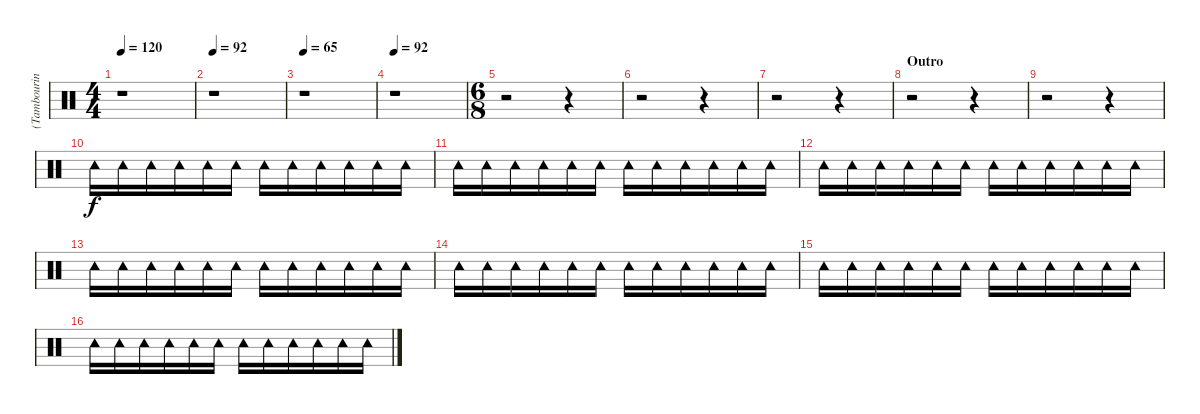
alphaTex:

\track ("(Tambourine)" "(Tambourin") {instrument percussion}
\staff {score}
\articulation defaults
\ts (4 4)
\tempo 120
\clef neutral
\ks c
r.1{dy f} |
\tempo 92
r.1 |
\tempo 65
r.1 |
\tempo 92
r.1 |
\ts (6 8)
r.2 r.4 |
r.2 r.4 |
r.2 r.4 |
\section ("" "Outro")
r.2 r.4 |
r.2 r.4 |
"Tambourine (hit)".16 "Tambourine (hit)".16 "Tambourine (hit)".16 "Tambourine (hit)".16 "Tambourine (hit)".16 "Tambourine (hit)".16 "Tambourine (hit)".16 "Tambourine (hit)".16 "Tambourine (hit)".16 "Tambourine (hit)".16 "Tambourine (hit)".16 "Tambourine (hit)".16 |
"Tambourine (hit)".16 "Tambourine (hit)".16 "Tambourine (hit)".16 "Tambourine (hit)".16 "Tambourine (hit)".16 "Tambourine (hit)".16 "Tambourine (hit)".16 "Tambourine (hit)".16 "Tambourine (hit)".16 "Tambourine (hit)".16 "Tambourine (hit)".16 "Tambourine (hit)".16 |
"Tambourine (hit)".16 "Tambourine (hit)".16 "Tambourine (hit)".16 "Tambourine (hit)".16 "Tambourine (hit)".16 "Tambourine (hit)".16 "Tambourine (hit)".16 "Tambourine (hit)".16 "Tambourine (hit)".16 "Tambourine (hit)".16 "Tambourine (hit)".16 "Tambourine (hit)".16 |
"Tambourine (hit)".16 "Tambourine (hit)".16 "Tambourine (hit)".16 "Tambourine (hit)".16 "Tambourine (hit)".16 "Tambourine (hit)".16 "Tambourine (hit)".16 "Tambourine (hit)".16 "Tambourine (hit)".16 "Tambourine (hit)".16 "Tambourine (hit)".16 "Tambourine (hit)".16 |
"Tambourine (hit)".16 "Tambourine (hit)".16 "Tambourine (hit)".16 "Tambourine (hit)".16 "Tambourine (hit)".16 "Tambourine (hit)".16 "Tambourine (hit)".16 "Tambourine (hit)".16 "Tambourine (hit)".16 "Tambourine (hit)".16 "Tambourine (hit)".16 "Tambourine (hit)".16 |
"Tambourine (hit)".16 "Tambourine (hit)".16 "Tambourine (hit)".16 "Tambourine (hit)".16 "Tambourine (hit)".16 "Tambourine (hit)".16 "Tambourine (hit)".16 "Tambourine (hit)".16 "Tambourine (hit)".16 "Tambourine (hit)".16 "Tambourine (hit)".16 "Tambourine (hit)".16 |
"Tambourine (hit)".16 "Tambourine (hit)".16 "Tambourine (hit)".16 "Tambourine (hit)".16 "Tambourine (hit)".16 "Tambourine (hit)".16 "Tambourine (hit)".16 "Tambourine (hit)".16 "Tambourine (hit)".16 "Tambourine (hit)".16 "Tambourine (hit)".16 "Tambourine (hit)".16
